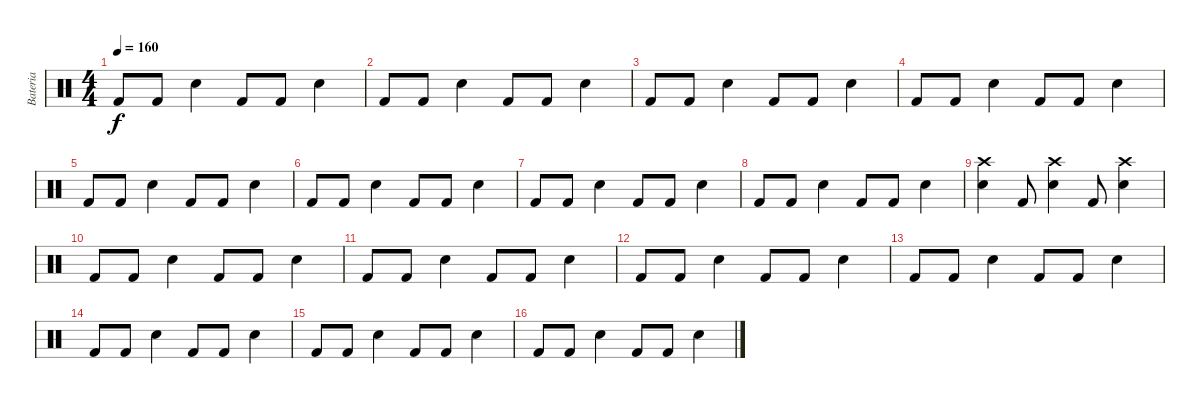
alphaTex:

\track ("Bateria" "Bateria") {instrument percussion}
\staff {score}
\articulation defaults
\ts (4 4)
\tempo 160
\clef neutral
\ks c "Kick (hit) 2".8{dy f} "Kick (hit) 2".8 "Electric Snare (hit)".4 "Kick (hit) 2".8 "Kick (hit) 2".8 "Electric Snare (hit)".4
|
"Kick (hit) 2".8 "Kick (hit) 2".8 "Electric Snare (hit)".4 "Kick (hit) 2".8 "Kick (hit) 2".8 "Electric Snare (hit)".4 |
"Kick (hit) 2".8 "Kick (hit) 2".8 "Electric Snare (hit)".4 "Kick (hit) 2".8 "Kick (hit) 2".8 "Electric Snare (hit)".4 |
"Kick (hit) 2".8 "Kick (hit) 2".8 "Electric Snare (hit)".4 "Kick (hit) 2".8 "Kick (hit) 2".8 "Electric Snare (hit)".4 |
"Kick (hit) 2".8 "Kick (hit) 2".8 "Electric Snare (hit)".4 "Kick (hit) 2".8 "Kick (hit) 2".8 "Electric Snare (hit)".4 |
"Kick (hit) 2".8 "Kick (hit) 2".8 "Electric Snare (hit)".4 "Kick (hit) 2".8 "Kick (hit) 2".8 "Electric Snare (hit)".4 |
"Kick (hit) 2".8 "Kick (hit) 2".8 "Electric Snare (hit)".4 "Kick (hit) 2".8 "Kick (hit) 2".8 "Electric Snare (hit)".4 |
"Kick (hit) 2".8 "Kick (hit) 2".8 "Electric Snare (hit)".4 "Kick (hit) 2".8 "Kick (hit) 2".8 "Electric Snare (hit)".4 |
("Snare (hit) 2" "Crash high (hit)").4 "Kick (hit) 2".8 ("Snare (hit) 2" "Crash high (hit)").4 "Kick (hit) 2".8 ("Snare (hit) 2" "Crash high (hit)").4 |
"Kick (hit) 2".8 "Kick (hit) 2".8 "Electric Snare (hit)".4 "Kick (hit) 2".8 "Kick (hit) 2".8 "Electric Snare (hit)".4 |
"Kick (hit) 2".8 "Kick (hit) 2".8 "Electric Snare (hit)".4 "Kick (hit) 2".8 "Kick (hit) 2".8 "Electric Snare (hit)".4 |
"Kick (hit) 2".8 "Kick (hit) 2".8 "Electric Snare (hit)".4 "Kick (hit) 2".8 "Kick (hit) 2".8 "Electric Snare (hit)".4 |
"Kick (hit) 2".8 "Kick (hit) 2".8 "Electric Snare (hit)".4 "Kick (hit) 2".8 "Kick (hit) 2".8 "Electric Snare (hit)".4 |
"Kick (hit) 2".8 "Kick (hit) 2".8 "Electric Snare (hit)".4 "Kick (hit) 2".8 "Kick (hit) 2".8 "Electric Snare (hit)".4 |
"Kick (hit) 2".8 "Kick (hit) 2".8 "Electric Snare (hit)".4 "Kick (hit) 2".8 "Kick (hit) 2".8 "Electric Snare (hit)".4 |
"Kick (hit) 2".8 "Kick (hit) 2".8 "Electric Snare (hit)".4 "Kick (hit) 2".8 "Kick (hit) 2".8 "Electric Snare (hit)".4
